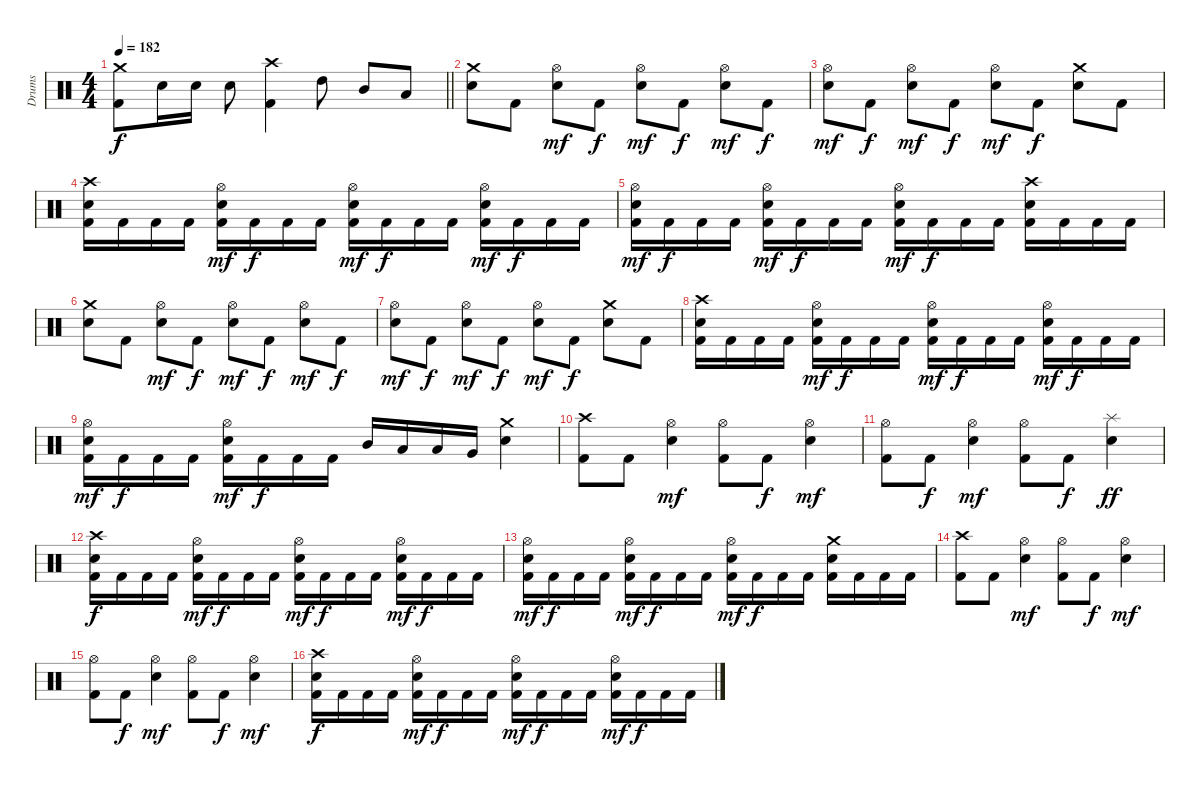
\track ("Drums" "Drums") {instrument percussion}
\staff {score}
\articulation defaults
\ts (4 4)
\tempo 182
\clef neutral
\barLineRight lightlight
\ks c
("Crash medium (hit)" "Kick (hit) 2").8{dy f} "Electric Snare (hit)".16 "Electric Snare (hit)".16 "Electric Snare (hit)".8 ("Crash high (hit)" "Kick (hit) 2").4 "High Tom (hit)".8 "Mid Tom (hit)".8 "Low Tom (hit)".8 |
("Crash medium (hit)" "Electric Snare (hit)").8 "Kick (hit) 2".8 ("Hi-Hat (open)" "Electric Snare (hit)").8{dy mf} "Kick (hit) 2".8{dy f} ("Hi-Hat (open)" "Electric Snare (hit)").8{dy mf} "Kick (hit) 2".8{dy f} ("Hi-Hat (open)" "Electric Snare (hit)").8{dy mf} "Kick (hit) 2".8{dy f} |
("Hi-Hat (open)" "Electric Snare (hit)").8{dy mf} "Kick (hit) 2".8{dy f} ("Hi-Hat (open)" "Electric Snare (hit)").8{dy mf} "Kick (hit) 2".8{dy f} ("Hi-Hat (open)" "Electric Snare (hit)").8{dy mf} "Kick (hit) 2".8{dy f} ("Crash medium (hit)" "Electric Snare (hit)").8 "Kick (hit) 2".8 |
("Crash high (hit)" "Electric Snare (hit)" "Kick (hit) 2").16 "Kick (hit) 2".16 "Kick (hit) 2".16 "Kick (hit) 2".16 ("Hi-Hat (open)" "Electric Snare (hit)" "Kick (hit) 2").16{dy mf} "Kick (hit) 2".16{dy f} "Kick (hit) 2".16 "Kick (hit) 2".16 ("Hi-Hat (open)" "Electric Snare (hit)" "Kick (hit) 2").16{dy mf} "Kick (hit) 2".16{dy f} "Kick (hit) 2".16 "Kick (hit) 2".16 ("Hi-Hat (open)" "Electric Snare (hit)" "Kick (hit) 2").16{dy mf} "Kick (hit) 2".16{dy f} "Kick (hit) 2".16 "Kick (hit) 2".16 |
("Hi-Hat (open)" "Electric Snare (hit)" "Kick (hit) 2").16{dy mf} "Kick (hit) 2".16{dy f} "Kick (hit) 2".16 "Kick (hit) 2".16 ("Hi-Hat (open)" "Electric Snare (hit)" "Kick (hit) 2").16{dy mf} "Kick (hit) 2".16{dy f} "Kick (hit) 2".16 "Kick (hit) 2".16 ("Hi-Hat (open)" "Electric Snare (hit)" "Kick (hit) 2").16{dy mf} "Kick (hit) 2".16{dy f} "Kick (hit) 2".16 "Kick (hit) 2".16 ("Crash high (hit)" "Electric Snare (hit)" "Kick (hit) 2").16 "Kick (hit) 2".16 "Kick (hit) 2".16 "Kick (hit) 2".16 |
("Crash medium (hit)" "Electric Snare (hit)").8 "Kick (hit) 2".8 ("Hi-Hat (open)" "Electric Snare (hit)").8{dy mf} "Kick (hit) 2".8{dy f} ("Hi-Hat (open)" "Electric Snare (hit)").8{dy mf} "Kick (hit) 2".8{dy f} ("Hi-Hat (open)" "Electric Snare (hit)").8{dy mf} "Kick (hit) 2".8{dy f} |
("Hi-Hat (open)" "Electric Snare (hit)").8{dy mf} "Kick (hit) 2".8{dy f} ("Hi-Hat (open)" "Electric Snare (hit)").8{dy mf} "Kick (hit) 2".8{dy f} ("Hi-Hat (open)" "Electric Snare (hit)").8{dy mf} "Kick (hit) 2".8{dy f} ("Crash medium (hit)" "Electric Snare (hit)").8 "Kick (hit) 2".8 |
("Crash high (hit)" "Electric Snare (hit)" "Kick (hit) 2").16 "Kick (hit) 2".16 "Kick (hit) 2".16 "Kick (hit) 2".16 ("Hi-Hat (open)" "Electric Snare (hit)" "Kick (hit) 2").16{dy mf} "Kick (hit) 2".16{dy f} "Kick (hit) 2".16 "Kick (hit) 2".16 ("Hi-Hat (open)" "Electric Snare (hit)" "Kick (hit) 2").16{dy mf} "Kick (hit) 2".16{dy f} "Kick (hit) 2".16 "Kick (hit) 2".16 ("Hi-Hat (open)" "Electric Snare (hit)" "Kick (hit) 2").16{dy mf} "Kick (hit) 2".16{dy f} "Kick (hit) 2".16 "Kick (hit) 2".16 |
("Hi-Hat (open)" "Electric Snare (hit)" "Kick (hit) 2").16{dy mf} "Kick (hit) 2".16{dy f} "Kick (hit) 2".16 "Kick (hit) 2".16 ("Hi-Hat (open)" "Electric Snare (hit)" "Kick (hit) 2").16{dy mf} "Kick (hit) 2".16{dy f} "Kick (hit) 2".16 "Kick (hit) 2".16 "Mid Tom (hit)".16 "Low Tom (hit)".16 "Low Tom (hit)".16 "Very Low Tom (hit)".16 ("Crash medium (hit)" "Electric Snare (hit)").4 |
("Crash high (hit)" "Kick (hit) 2").8 "Kick (hit) 2".8 ("Hi-Hat (open)" "Electric Snare (hit)").4{dy mf} ("Hi-Hat (open)" "Kick (hit) 2").8 "Kick (hit) 2".8{dy f} ("Hi-Hat (open)" "Electric Snare (hit)").4{dy mf} |
("Hi-Hat (open)" "Kick (hit) 2").8 "Kick (hit) 2".8{dy f} ("Hi-Hat (open)" "Electric Snare (hit)").4{dy mf} ("Hi-Hat (open)" "Kick (hit) 2").8 "Kick (hit) 2".8{dy f} ("Splash (hit)" "Electric Snare (hit)").4{dy ff} |
("Crash high (hit)" "Electric Snare (hit)" "Kick (hit) 2").16{dy f} "Kick (hit) 2".16 "Kick (hit) 2".16 "Kick (hit) 2".16 ("Hi-Hat (open)" "Electric Snare (hit)" "Kick (hit) 2").16{dy mf} "Kick (hit) 2".16{dy f} "Kick (hit) 2".16 "Kick (hit) 2".16 ("Hi-Hat (open)" "Electric Snare (hit)" "Kick (hit) 2").16{dy mf} "Kick (hit) 2".16{dy f} "Kick (hit) 2".16 "Kick (hit) 2".16 ("Hi-Hat (open)" "Electric Snare (hit)" "Kick (hit) 2").16{dy mf} "Kick (hit) 2".16{dy f} "Kick (hit) 2".16 "Kick (hit) 2".16 |
("Hi-Hat (open)" "Electric Snare (hit)" "Kick (hit) 2").16{dy mf} "Kick (hit) 2".16{dy f} "Kick (hit) 2".16 "Kick (hit) 2".16 ("Hi-Hat (open)" "Electric Snare (hit)" "Kick (hit) 2").16{dy mf} "Kick (hit) 2".16{dy f} "Kick (hit) 2".16 "Kick (hit) 2".16 ("Hi-Hat (open)" "Electric Snare (hit)" "Kick (hit) 2").16{dy mf} "Kick (hit) 2".16{dy f} "Kick (hit) 2".16 "Kick (hit) 2".16 ("Crash medium (hit)" "Electric Snare (hit)" "Kick (hit) 2").16 "Kick (hit) 2".16 "Kick (hit) 2".16 "Kick (hit) 2".16 |
("Crash high (hit)" "Kick (hit) 2").8 "Kick (hit) 2".8 ("Hi-Hat (open)" "Electric Snare (hit)").4{dy mf} ("Hi-Hat (open)" "Kick (hit) 2").8 "Kick (hit) 2".8{dy f} ("Hi-Hat (open)" "Electric Snare (hit)").4{dy mf} |
("Hi-Hat (open)" "Kick (hit) 2").8 "Kick (hit) 2".8{dy f} ("Hi-Hat (open)" "Electric Snare (hit)").4{dy mf} ("Hi-Hat (open)" "Kick (hit) 2").8 "Kick (hit) 2".8{dy f} ("Hi-Hat (open)" "Electric Snare (hit)").4{dy mf} |
("Crash high (hit)" "Electric Snare (hit)" "Kick (hit) 2").16{dy f} "Kick (hit) 2".16 "Kick (hit) 2".16 "Kick (hit) 2".16 ("Hi-Hat (open)" "Electric Snare (hit)" "Kick (hit) 2").16{dy mf} "Kick (hit) 2".16{dy f} "Kick (hit) 2".16 "Kick (hit) 2".16 ("Hi-Hat (open)" "Electric Snare (hit)" "Kick (hit) 2").16{dy mf} "Kick (hit) 2".16{dy f} "Kick (hit) 2".16 "Kick (hit) 2".16 ("Hi-Hat (open)" "Electric Snare (hit)" "Kick (hit) 2").16{dy mf} "Kick (hit) 2".16{dy f} "Kick (hit) 2".16 "Kick (hit) 2".16
